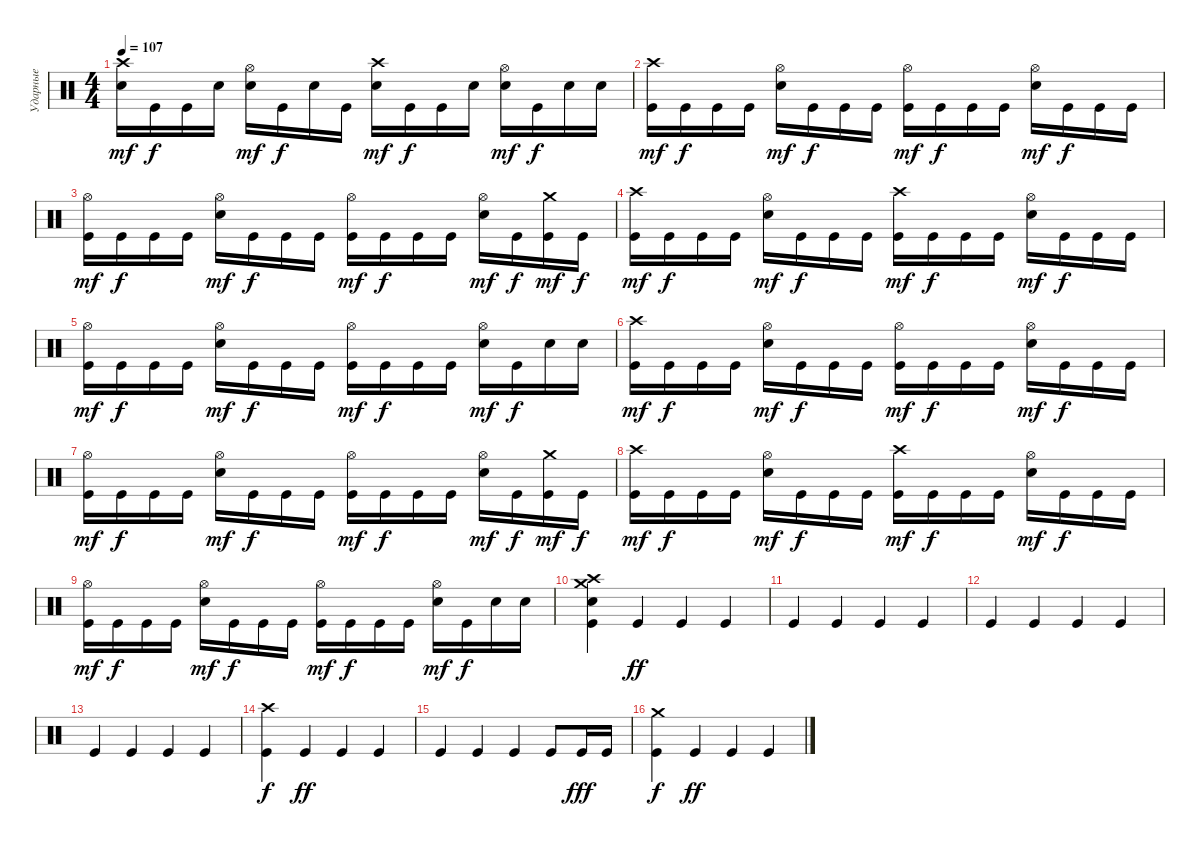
\track ("Ударные" "Ударные") {instrument percussion}
\staff {score}
\articulation defaults
\ts (4 4)
\tempo 107
\clef neutral
\ks c
("Crash high (hit)" "Electric Snare (hit)").16{dy mf} "Kick (hit)".16{dy f} "Kick (hit)".16 "Electric Snare (hit)".16 ("Hi-Hat (open)" "Electric Snare (hit)").16{dy mf} "Kick (hit)".16{dy f} "Electric Snare (hit)".16 "Kick (hit)".16 ("Crash high (hit)" "Electric Snare (hit)").16{dy mf} "Kick (hit)".16{dy f} "Kick (hit)".16 "Electric Snare (hit)".16 ("Hi-Hat (open)" "Electric Snare (hit)").16{dy mf} "Kick (hit)".16{dy f} "Electric Snare (hit)".16 "Electric Snare (hit)".16 |
("Crash high (hit)" "Kick (hit)").16{dy mf} "Kick (hit)".16{dy f} "Kick (hit)".16 "Kick (hit)".16 ("Hi-Hat (open)" "Electric Snare (hit)").16{dy mf} "Kick (hit)".16{dy f} "Kick (hit)".16 "Kick (hit)".16 ("Hi-Hat (open)" "Kick (hit)").16{dy mf} "Kick (hit)".16{dy f} "Kick (hit)".16 "Kick (hit)".16 ("Hi-Hat (open)" "Electric Snare (hit)").16{dy mf} "Kick (hit)".16{dy f} "Kick (hit)".16 "Kick (hit)".16 |
("Hi-Hat (open)" "Kick (hit)").16{dy mf} "Kick (hit)".16{dy f} "Kick (hit)".16 "Kick (hit)".16 ("Hi-Hat (open)" "Electric Snare (hit)").16{dy mf} "Kick (hit)".16{dy f} "Kick (hit)".16 "Kick (hit)".16 ("Hi-Hat (open)" "Kick (hit)").16{dy mf} "Kick (hit)".16{dy f} "Kick (hit)".16 "Kick (hit)".16 ("Hi-Hat (open)" "Electric Snare (hit)").16{dy mf} "Kick (hit)".16{dy f} ("Crash medium (hit)" "Kick (hit)").16{dy mf} "Kick (hit)".16{dy f} |
("Crash high (hit)" "Kick (hit)").16{dy mf} "Kick (hit)".16{dy f} "Kick (hit)".16 "Kick (hit)".16 ("Hi-Hat (open)" "Electric Snare (hit)").16{dy mf} "Kick (hit)".16{dy f} "Kick (hit)".16 "Kick (hit)".16 ("Crash high (hit)" "Kick (hit)").16{dy mf} "Kick (hit)".16{dy f} "Kick (hit)".16 "Kick (hit)".16 ("Hi-Hat (open)" "Electric Snare (hit)").16{dy mf} "Kick (hit)".16{dy f} "Kick (hit)".16 "Kick (hit)".16 |
("Hi-Hat (open)" "Kick (hit)").16{dy mf} "Kick (hit)".16{dy f} "Kick (hit)".16 "Kick (hit)".16 ("Hi-Hat (open)" "Electric Snare (hit)").16{dy mf} "Kick (hit)".16{dy f} "Kick (hit)".16 "Kick (hit)".16 ("Hi-Hat (open)" "Kick (hit)").16{dy mf} "Kick (hit)".16{dy f} "Kick (hit)".16 "Kick (hit)".16 ("Hi-Hat (open)" "Electric Snare (hit)").16{dy mf} "Kick (hit)".16{dy f} "Electric Snare (hit)".16 "Electric Snare (hit)".16 |
("Crash high (hit)" "Kick (hit)").16{dy mf} "Kick (hit)".16{dy f} "Kick (hit)".16 "Kick (hit)".16 ("Hi-Hat (open)" "Electric Snare (hit)").16{dy mf} "Kick (hit)".16{dy f} "Kick (hit)".16 "Kick (hit)".16 ("Hi-Hat (open)" "Kick (hit)").16{dy mf} "Kick (hit)".16{dy f} "Kick (hit)".16 "Kick (hit)".16 ("Hi-Hat (open)" "Electric Snare (hit)").16{dy mf} "Kick (hit)".16{dy f} "Kick (hit)".16 "Kick (hit)".16 |
("Hi-Hat (open)" "Kick (hit)").16{dy mf} "Kick (hit)".16{dy f} "Kick (hit)".16 "Kick (hit)".16 ("Hi-Hat (open)" "Electric Snare (hit)").16{dy mf} "Kick (hit)".16{dy f} "Kick (hit)".16 "Kick (hit)".16 ("Hi-Hat (open)" "Kick (hit)").16{dy mf} "Kick (hit)".16{dy f} "Kick (hit)".16 "Kick (hit)".16 ("Hi-Hat (open)" "Electric Snare (hit)").16{dy mf} "Kick (hit)".16{dy f} ("Crash medium (hit)" "Kick (hit)").16{dy mf} "Kick (hit)".16{dy f} |
("Crash high (hit)" "Kick (hit)").16{dy mf} "Kick (hit)".16{dy f} "Kick (hit)".16 "Kick (hit)".16 ("Hi-Hat (open)" "Electric Snare (hit)").16{dy mf} "Kick (hit)".16{dy f} "Kick (hit)".16 "Kick (hit)".16 ("Crash high (hit)" "Kick (hit)").16{dy mf} "Kick (hit)".16{dy f} "Kick (hit)".16 "Kick (hit)".16 ("Hi-Hat (open)" "Electric Snare (hit)").16{dy mf} "Kick (hit)".16{dy f} "Kick (hit)".16 "Kick (hit)".16 |
("Hi-Hat (open)" "Kick (hit)").16{dy mf} "Kick (hit)".16{dy f} "Kick (hit)".16 "Kick (hit)".16 ("Hi-Hat (open)" "Electric Snare (hit)").16{dy mf} "Kick (hit)".16{dy f} "Kick (hit)".16 "Kick (hit)".16 ("Hi-Hat (open)" "Kick (hit)").16{dy mf} "Kick (hit)".16{dy f} "Kick (hit)".16 "Kick (hit)".16 ("Hi-Hat (open)" "Electric Snare (hit)").16{dy mf} "Kick (hit)".16{dy f} "Electric Snare (hit)".16 "Electric Snare (hit)".16 |
("Kick (hit)" "Electric Snare (hit)" "Crash medium (hit)" "Crash high (hit)").4 "Kick (hit)".4{dy ff} "Kick (hit)".4 "Kick (hit)".4 |
"Kick (hit)".4 "Kick (hit)".4 "Kick (hit)".4 "Kick (hit)".4 |
"Kick (hit)".4 "Kick (hit)".4 "Kick (hit)".4 "Kick (hit)".4 |
"Kick (hit)".4 "Kick (hit)".4 "Kick (hit)".4 "Kick (hit)".4 |
("Kick (hit)" "Crash high (hit)").4{dy f} "Kick (hit)".4{dy ff} "Kick (hit)".4 "Kick (hit)".4 |
"Kick (hit)".4 "Kick (hit)".4 "Kick (hit)".4 "Kick (hit)".8 "Kick (hit)".16{dy fff} "Kick (hit)".16 |
("Kick (hit)" "Crash medium (hit)").4{dy f} "Kick (hit)".4{dy ff} "Kick (hit)".4 "Kick (hit)".4
